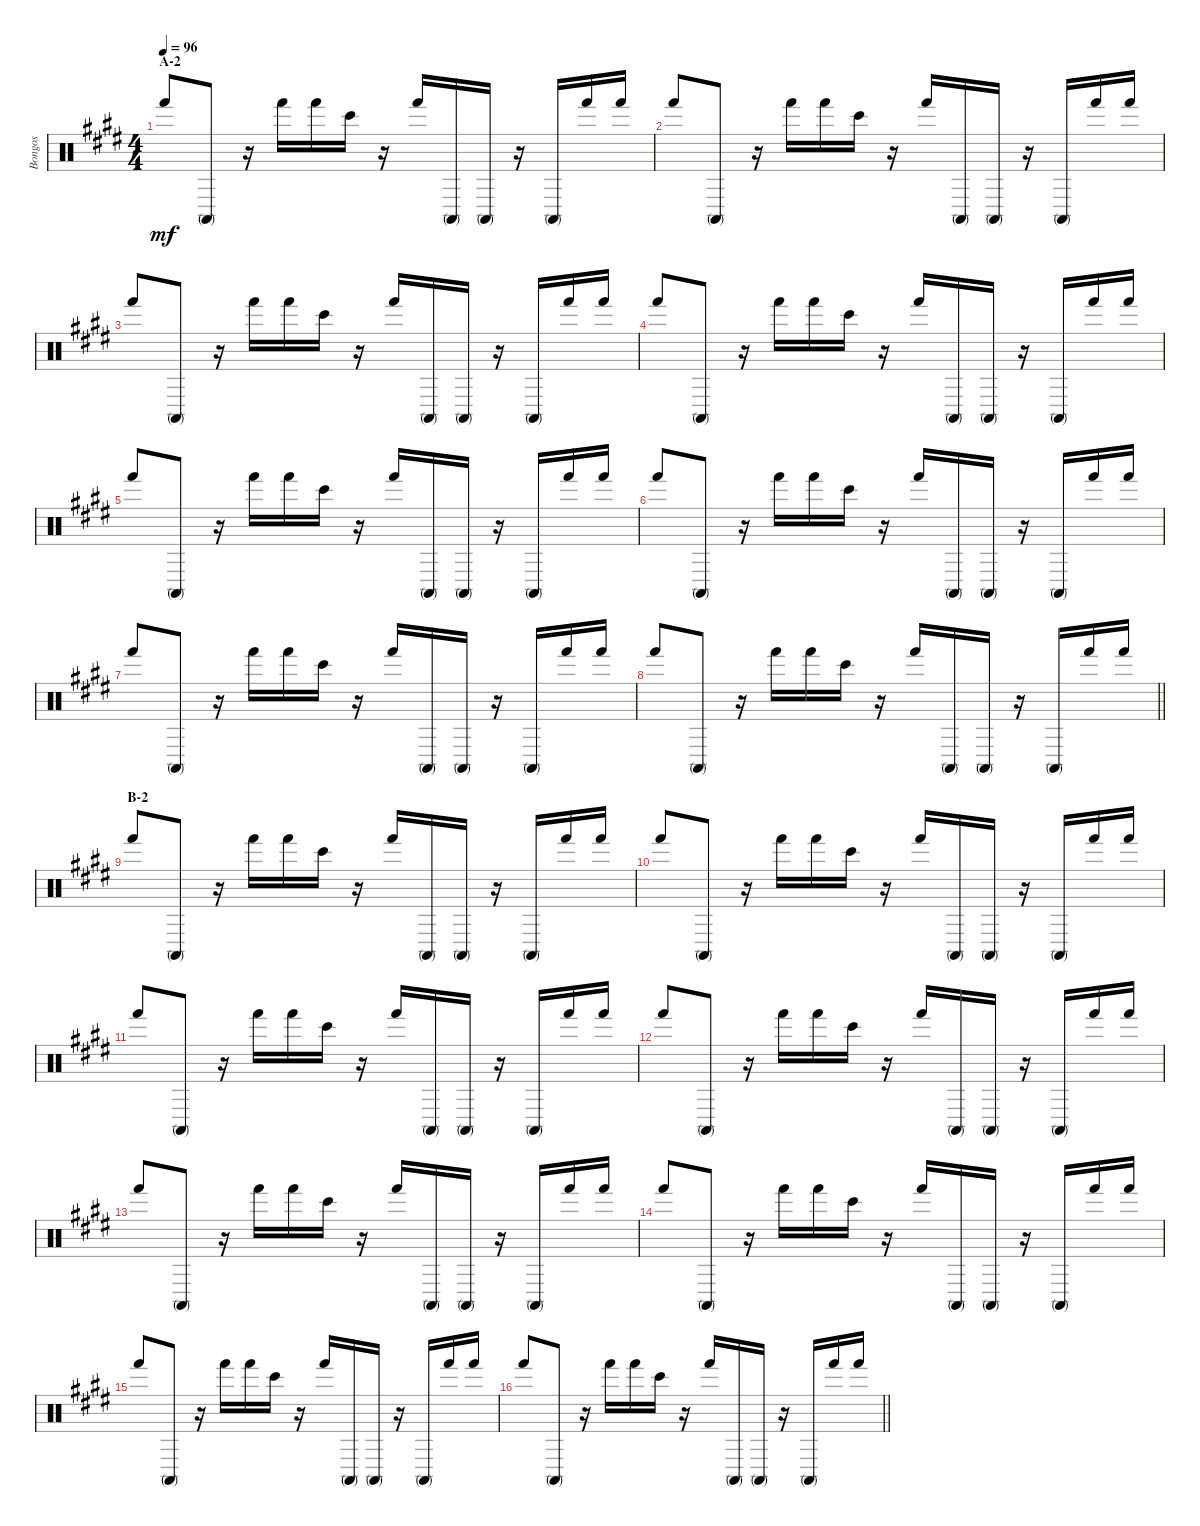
\track ("Bongos" "Bongos") {instrument percussion}
\staff {score}
\articulation defaults
\ts (4 4)
\section ("" "A-2")
\tempo 96
\clef neutral
\ks e "Hand (hit)".8{dy mf} "Conga high (mute)".8
r.16 "Hand (hit)".16 "Hand (hit)".16 "Bongo High (hit)".16 r.16 "Hand (hit)".16 "Conga high (mute)".16 "Conga high (mute)".16 r.16 "Conga high (mute)".16 "Hand (hit)".16 "Hand (hit)".16 |
"Hand (hit)".8 "Conga high (mute)".8 r.16 "Hand (hit)".16 "Hand (hit)".16 "Bongo High (hit)".16 r.16 "Hand (hit)".16 "Conga high (mute)".16 "Conga high (mute)".16 r.16 "Conga high (mute)".16 "Hand (hit)".16 "Hand (hit)".16 |
"Hand (hit)".8 "Conga high (mute)".8 r.16 "Hand (hit)".16 "Hand (hit)".16 "Bongo High (hit)".16 r.16 "Hand (hit)".16 "Conga high (mute)".16 "Conga high (mute)".16 r.16 "Conga high (mute)".16 "Hand (hit)".16 "Hand (hit)".16 |
"Hand (hit)".8 "Conga high (mute)".8 r.16 "Hand (hit)".16 "Hand (hit)".16 "Bongo High (hit)".16 r.16 "Hand (hit)".16 "Conga high (mute)".16 "Conga high (mute)".16 r.16 "Conga high (mute)".16 "Hand (hit)".16 "Hand (hit)".16 |
"Hand (hit)".8 "Conga high (mute)".8 r.16 "Hand (hit)".16 "Hand (hit)".16 "Bongo High (hit)".16 r.16 "Hand (hit)".16 "Conga high (mute)".16 "Conga high (mute)".16 r.16 "Conga high (mute)".16 "Hand (hit)".16 "Hand (hit)".16 |
"Hand (hit)".8 "Conga high (mute)".8 r.16 "Hand (hit)".16 "Hand (hit)".16 "Bongo High (hit)".16 r.16 "Hand (hit)".16 "Conga high (mute)".16 "Conga high (mute)".16 r.16 "Conga high (mute)".16 "Hand (hit)".16 "Hand (hit)".16 |
"Hand (hit)".8 "Conga high (mute)".8 r.16 "Hand (hit)".16 "Hand (hit)".16 "Bongo High (hit)".16 r.16 "Hand (hit)".16 "Conga high (mute)".16 "Conga high (mute)".16 r.16 "Conga high (mute)".16 "Hand (hit)".16 "Hand (hit)".16 |
\barLineRight lightlight "Hand (hit)".8 "Conga high (mute)".8
r.16 "Hand (hit)".16 "Hand (hit)".16 "Bongo High (hit)".16 r.16 "Hand (hit)".16 "Conga high (mute)".16 "Conga high (mute)".16 r.16 "Conga high (mute)".16 "Hand (hit)".16 "Hand (hit)".16 |
\section ("" "B-2")
"Hand (hit)".8 "Conga high (mute)".8 r.16 "Hand (hit)".16 "Hand (hit)".16 "Bongo High (hit)".16 r.16 "Hand (hit)".16 "Conga high (mute)".16 "Conga high (mute)".16 r.16 "Conga high (mute)".16 "Hand (hit)".16 "Hand (hit)".16 |
"Hand (hit)".8 "Conga high (mute)".8 r.16 "Hand (hit)".16 "Hand (hit)".16 "Bongo High (hit)".16 r.16 "Hand (hit)".16 "Conga high (mute)".16 "Conga high (mute)".16 r.16 "Conga high (mute)".16 "Hand (hit)".16 "Hand (hit)".16 |
"Hand (hit)".8 "Conga high (mute)".8 r.16 "Hand (hit)".16 "Hand (hit)".16 "Bongo High (hit)".16 r.16 "Hand (hit)".16 "Conga high (mute)".16 "Conga high (mute)".16 r.16 "Conga high (mute)".16 "Hand (hit)".16 "Hand (hit)".16 |
"Hand (hit)".8 "Conga high (mute)".8 r.16 "Hand (hit)".16 "Hand (hit)".16 "Bongo High (hit)".16 r.16 "Hand (hit)".16 "Conga high (mute)".16 "Conga high (mute)".16 r.16 "Conga high (mute)".16 "Hand (hit)".16 "Hand (hit)".16 |
"Hand (hit)".8 "Conga high (mute)".8 r.16 "Hand (hit)".16 "Hand (hit)".16 "Bongo High (hit)".16 r.16 "Hand (hit)".16 "Conga high (mute)".16 "Conga high (mute)".16 r.16 "Conga high (mute)".16 "Hand (hit)".16 "Hand (hit)".16 |
"Hand (hit)".8 "Conga high (mute)".8 r.16 "Hand (hit)".16 "Hand (hit)".16 "Bongo High (hit)".16 r.16 "Hand (hit)".16 "Conga high (mute)".16 "Conga high (mute)".16 r.16 "Conga high (mute)".16 "Hand (hit)".16 "Hand (hit)".16 |
"Hand (hit)".8 "Conga high (mute)".8 r.16 "Hand (hit)".16 "Hand (hit)".16 "Bongo High (hit)".16 r.16 "Hand (hit)".16 "Conga high (mute)".16 "Conga high (mute)".16 r.16 "Conga high (mute)".16 "Hand (hit)".16 "Hand (hit)".16 |
\barLineRight lightlight "Hand (hit)".8 "Conga high (mute)".8
r.16 "Hand (hit)".16 "Hand (hit)".16 "Bongo High (hit)".16 r.16 "Hand (hit)".16 "Conga high (mute)".16 "Conga high (mute)".16 r.16 "Conga high (mute)".16 "Hand (hit)".16 "Hand (hit)".16
